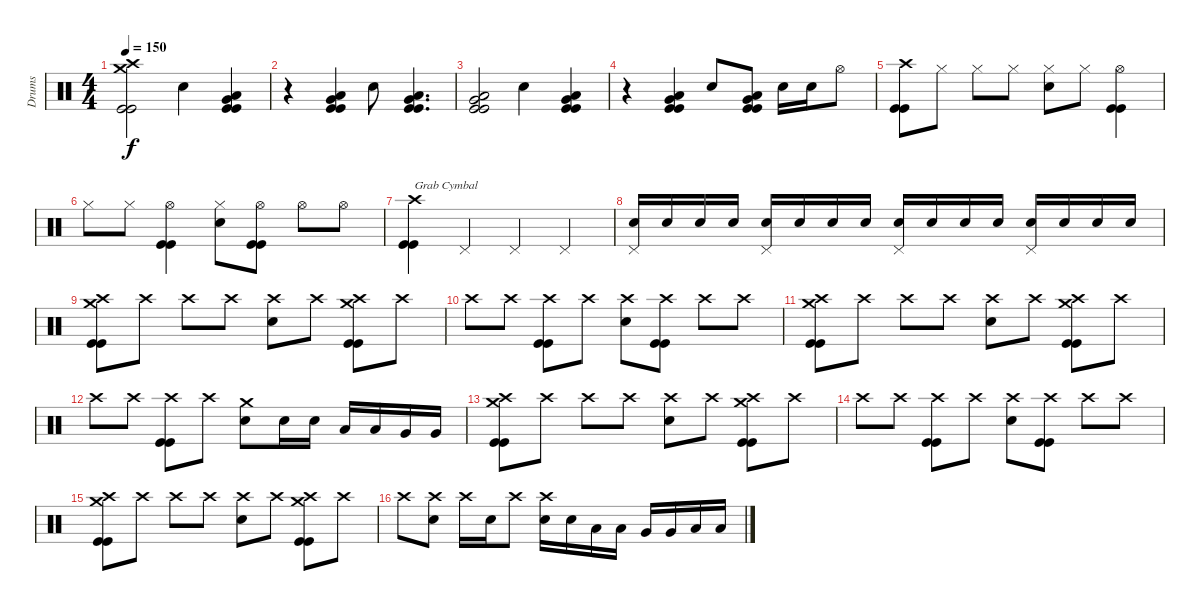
\track ("Drums" "Drums") {instrument percussion}
\staff {score}
\articulation defaults
\ts (4 4)
\tempo 150
\clef neutral
\ks c
("Crash medium (hit)" "Crash high (hit)" "Kick (hit)" "Kick (hit)").2{dy f} "Electric Snare (hit)".4 ("Low Tom (hit)" "Very Low Tom (hit)" "Kick (hit)" "Kick (hit)").4 |
r.4 ("Low Tom (hit)" "Very Low Tom (hit)" "Kick (hit)" "Kick (hit)").4 "Electric Snare (hit)".8 ("Very Low Tom (hit)" "Low Floor Tom (hit)" "Kick (hit)" "Kick (hit)").4{d} |
("Very Low Tom (hit)" "Low Floor Tom (hit)" "Kick (hit)" "Kick (hit)").2 "Electric Snare (hit)".4 ("Low Tom (hit)" "Very Low Tom (hit)" "Kick (hit)" "Kick (hit)").4 |
r.4 ("Low Tom (hit)" "Very Low Tom (hit)" "Kick (hit)" "Kick (hit)").4 "Electric Snare (hit)".8 ("Very Low Tom (hit)" "Low Floor Tom (hit)" "Kick (hit)" "Kick (hit)").8 "Electric Snare (hit)".16 "Electric Snare (hit)".16 "Hi-Hat (open)".8 |
("Crash high (hit)" "Kick (hit)" "Kick (hit)").8 "Hi-Hat (closed)".8 "Hi-Hat (closed)".8 "Hi-Hat (closed)".8 ("Hi-Hat (closed)" "Electric Snare (hit)").8 "Hi-Hat (closed)".8 ("Hi-Hat (open)" "Kick (hit)" "Kick (hit)").4 |
"Hi-Hat (closed)".8 "Hi-Hat (closed)".8 ("Hi-Hat (open)" "Kick (hit)" "Kick (hit)").4 ("Hi-Hat (closed)" "Electric Snare (hit)").8 ("Hi-Hat (open)" "Kick (hit)" "Kick (hit)").8 "Hi-Hat (open)".8 "Hi-Hat (open)".8 |
("Crash high (hit)" "Kick (hit)" "Kick (hit)").4{txt "Grab Cymbal"} "Pedal Hi-Hat (hit)".4 "Pedal Hi-Hat (hit)".4 "Pedal Hi-Hat (hit)".4 |
("Pedal Hi-Hat (hit)" "Electric Snare (hit)").16 "Electric Snare (hit)".16 "Electric Snare (hit)".16 "Electric Snare (hit)".16 ("Pedal Hi-Hat (hit)" "Electric Snare (hit)").16 "Electric Snare (hit)".16 "Electric Snare (hit)".16 "Electric Snare (hit)".16 ("Pedal Hi-Hat (hit)" "Electric Snare (hit)").16 "Electric Snare (hit)".16 "Electric Snare (hit)".16 "Electric Snare (hit)".16 ("Pedal Hi-Hat (hit)" "Electric Snare (hit)").16 "Electric Snare (hit)".16 "Electric Snare (hit)".16 "Electric Snare (hit)".16 |
("Crash high (hit)" "Crash medium (hit)" "Kick (hit)" "Kick (hit)").8 "Crash high (hit)".8 "Crash high (hit)".8 "Crash high (hit)".8 ("Crash high (hit)" "Electric Snare (hit)").8 "Crash high (hit)".8 ("Crash high (hit)" "Crash medium (hit)" "Kick (hit)" "Kick (hit)").8 "Crash high (hit)".8 |
"Crash high (hit)".8 "Crash high (hit)".8 ("Crash high (hit)" "Kick (hit)" "Kick (hit)").8 "Crash high (hit)".8 ("Crash high (hit)" "Electric Snare (hit)").8 ("Crash high (hit)" "Kick (hit)" "Kick (hit)").8 "Crash high (hit)".8 "Crash high (hit)".8 |
("Crash high (hit)" "Crash medium (hit)" "Kick (hit)" "Kick (hit)").8 "Crash high (hit)".8 "Crash high (hit)".8 "Crash high (hit)".8 ("Crash high (hit)" "Electric Snare (hit)").8 "Crash high (hit)".8 ("Crash high (hit)" "Crash medium (hit)" "Kick (hit)" "Kick (hit)").8 "Crash high (hit)".8 |
"Crash high (hit)".8 "Crash high (hit)".8 ("Crash high (hit)" "Kick (hit)" "Kick (hit)").8 "Crash high (hit)".8 ("Crash medium (hit)" "Electric Snare (hit)").8 "Electric Snare (hit)".16 "Electric Snare (hit)".16 "Low Tom (hit)".16 "Low Tom (hit)".16 "Very Low Tom (hit)".16 "Very Low Tom (hit)".16 |
("Crash high (hit)" "Crash medium (hit)" "Kick (hit)" "Kick (hit)").8 "Crash high (hit)".8 "Crash high (hit)".8 "Crash high (hit)".8 ("Crash high (hit)" "Electric Snare (hit)").8 "Crash high (hit)".8 ("Crash high (hit)" "Crash medium (hit)" "Kick (hit)" "Kick (hit)").8 "Crash high (hit)".8 |
"Crash high (hit)".8 "Crash high (hit)".8 ("Crash high (hit)" "Kick (hit)" "Kick (hit)").8 "Crash high (hit)".8 ("Crash high (hit)" "Electric Snare (hit)").8 ("Crash high (hit)" "Kick (hit)" "Kick (hit)").8 "Crash high (hit)".8 "Crash high (hit)".8 |
("Crash high (hit)" "Crash medium (hit)" "Kick (hit)" "Kick (hit)").8 "Crash high (hit)".8 "Crash high (hit)".8 "Crash high (hit)".8 ("Crash high (hit)" "Electric Snare (hit)").8 "Crash high (hit)".8 ("Crash high (hit)" "Crash medium (hit)" "Kick (hit)" "Kick (hit)").8 "Crash high (hit)".8 |
"Crash high (hit)".8 ("Crash high (hit)" "Electric Snare (hit)").8 "Crash high (hit)".16 "Electric Snare (hit)".16 "Crash high (hit)".8 ("Crash high (hit)" "Electric Snare (hit)").16 "Electric Snare (hit)".16 "Low Tom (hit)".16 "Low Tom (hit)".16 "Very Low Tom (hit)".16 "Very Low Tom (hit)".16 "Low Floor Tom (hit)".16 "Low Floor Tom (hit)".16
